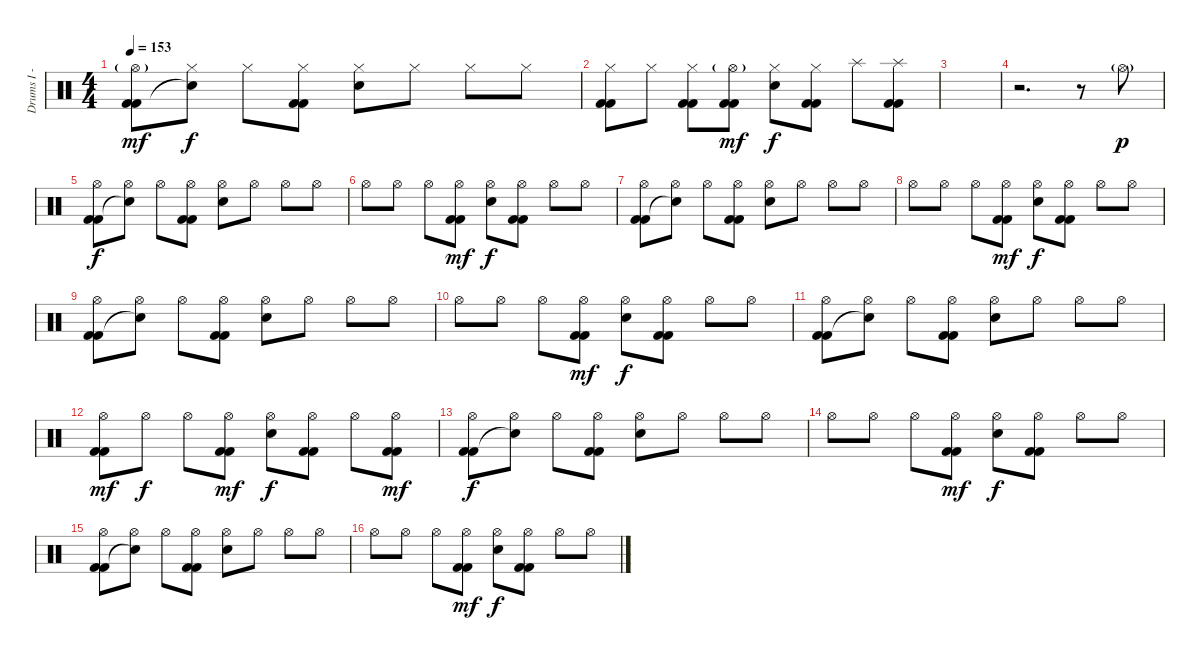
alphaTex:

\track ("Drums I - Adam" "Drums I - ") {instrument percussion}
\staff {score}
\articulation defaults
\ts (4 4)
\tempo 153
\clef neutral
\ks c
("Hi-Hat (open)"{g} "Kick (hit) 2" "Kick (hit) 2").8{dy mf} ("Hi-Hat (closed)" "Snare (hit)"{t}).8{dy f} "Hi-Hat (closed)".8 ("Hi-Hat (closed)" "Kick (hit) 2" "Kick (hit) 2").8 ("Hi-Hat (closed)" "Electric Snare (hit)").8 "Hi-Hat (closed)".8 "Hi-Hat (closed)".8 "Hi-Hat (closed)".8 |
("Hi-Hat (closed)" "Kick (hit) 2" "Kick (hit) 2").8 "Hi-Hat (closed)".8 ("Hi-Hat (closed)" "Kick (hit) 2" "Kick (hit) 2").8 ("Hi-Hat (open)"{g} "Kick (hit) 2" "Kick (hit) 2").8{dy mf} ("Hi-Hat (closed)" "Electric Snare (hit)").8{dy f} ("Hi-Hat (closed)" "Kick (hit) 2" "Kick (hit) 2").8 "Splash (hit)".8 ("Splash (hit)" "Kick (hit) 2" "Kick (hit) 2").8 |
|
r.2{d} r.8 "Hi-Hat (open)"{g}.8{dy p} |
("Hi-Hat (open)" "Kick (hit) 2" "Kick (hit) 2").8{dy f} ("Hi-Hat (open)" "Snare (hit)"{t}).8 "Hi-Hat (open)".8 ("Hi-Hat (open)" "Kick (hit) 2" "Kick (hit) 2").8 ("Hi-Hat (open)" "Electric Snare (hit)").8 "Hi-Hat (open)".8 "Hi-Hat (open)".8 "Hi-Hat (open)".8 |
"Hi-Hat (open)".8 "Hi-Hat (open)".8 "Hi-Hat (open)".8 ("Hi-Hat (open)" "Kick (hit) 2" "Kick (hit) 2").8{dy mf} ("Hi-Hat (open)" "Electric Snare (hit)").8{dy f} ("Hi-Hat (open)" "Kick (hit) 2" "Kick (hit) 2").8 "Hi-Hat (open)".8 "Hi-Hat (open)".8 |
("Hi-Hat (open)" "Kick (hit) 2" "Kick (hit) 2").8 ("Hi-Hat (open)" "Snare (hit)"{t}).8 "Hi-Hat (open)".8 ("Hi-Hat (open)" "Kick (hit) 2" "Kick (hit) 2").8 ("Hi-Hat (open)" "Electric Snare (hit)").8 "Hi-Hat (open)".8 "Hi-Hat (open)".8 "Hi-Hat (open)".8 |
"Hi-Hat (open)".8 "Hi-Hat (open)".8 "Hi-Hat (open)".8 ("Hi-Hat (open)" "Kick (hit) 2" "Kick (hit) 2").8{dy mf} ("Hi-Hat (open)" "Electric Snare (hit)").8{dy f} ("Hi-Hat (open)" "Kick (hit) 2" "Kick (hit) 2").8 "Hi-Hat (open)".8 "Hi-Hat (open)".8 |
("Hi-Hat (open)" "Kick (hit) 2" "Kick (hit) 2").8 ("Hi-Hat (open)" "Snare (hit)"{t}).8 "Hi-Hat (open)".8 ("Hi-Hat (open)" "Kick (hit) 2" "Kick (hit) 2").8 ("Hi-Hat (open)" "Electric Snare (hit)").8 "Hi-Hat (open)".8 "Hi-Hat (open)".8 "Hi-Hat (open)".8 |
"Hi-Hat (open)".8 "Hi-Hat (open)".8 "Hi-Hat (open)".8 ("Hi-Hat (open)" "Kick (hit) 2" "Kick (hit) 2").8{dy mf} ("Hi-Hat (open)" "Electric Snare (hit)").8{dy f} ("Hi-Hat (open)" "Kick (hit) 2" "Kick (hit) 2").8 "Hi-Hat (open)".8 "Hi-Hat (open)".8 |
("Hi-Hat (open)" "Kick (hit) 2" "Kick (hit) 2").8 ("Hi-Hat (open)" "Snare (hit)"{t}).8 "Hi-Hat (open)".8 ("Hi-Hat (open)" "Kick (hit) 2" "Kick (hit) 2").8 ("Hi-Hat (open)" "Electric Snare (hit)").8 "Hi-Hat (open)".8 "Hi-Hat (open)".8 "Hi-Hat (open)".8 |
("Hi-Hat (open)" "Kick (hit) 2" "Kick (hit) 2").8{dy mf} "Hi-Hat (open)".8{dy f} "Hi-Hat (open)".8 ("Hi-Hat (open)" "Kick (hit) 2" "Kick (hit) 2").8{dy mf} ("Hi-Hat (open)" "Electric Snare (hit)").8{dy f} ("Hi-Hat (open)" "Kick (hit) 2" "Kick (hit) 2").8 "Hi-Hat (open)".8 ("Hi-Hat (open)" "Kick (hit) 2" "Kick (hit) 2").8{dy mf} |
("Hi-Hat (open)" "Kick (hit) 2" "Kick (hit) 2").8{dy f} ("Hi-Hat (open)" "Snare (hit)"{t}).8 "Hi-Hat (open)".8 ("Hi-Hat (open)" "Kick (hit) 2" "Kick (hit) 2").8 ("Hi-Hat (open)" "Electric Snare (hit)").8 "Hi-Hat (open)".8 "Hi-Hat (open)".8 "Hi-Hat (open)".8 |
"Hi-Hat (open)".8 "Hi-Hat (open)".8 "Hi-Hat (open)".8 ("Hi-Hat (open)" "Kick (hit) 2" "Kick (hit) 2").8{dy mf} ("Hi-Hat (open)" "Electric Snare (hit)").8{dy f} ("Hi-Hat (open)" "Kick (hit) 2" "Kick (hit) 2").8 "Hi-Hat (open)".8 "Hi-Hat (open)".8 |
("Hi-Hat (open)" "Kick (hit) 2" "Kick (hit) 2").8 ("Hi-Hat (open)" "Snare (hit)"{t}).8 "Hi-Hat (open)".8 ("Hi-Hat (open)" "Kick (hit) 2" "Kick (hit) 2").8 ("Hi-Hat (open)" "Electric Snare (hit)").8 "Hi-Hat (open)".8 "Hi-Hat (open)".8 "Hi-Hat (open)".8 |
"Hi-Hat (open)".8 "Hi-Hat (open)".8 "Hi-Hat (open)".8 ("Hi-Hat (open)" "Kick (hit) 2" "Kick (hit) 2").8{dy mf} ("Hi-Hat (open)" "Electric Snare (hit)").8{dy f} ("Hi-Hat (open)" "Kick (hit) 2" "Kick (hit) 2").8 "Hi-Hat (open)".8 "Hi-Hat (open)".8
